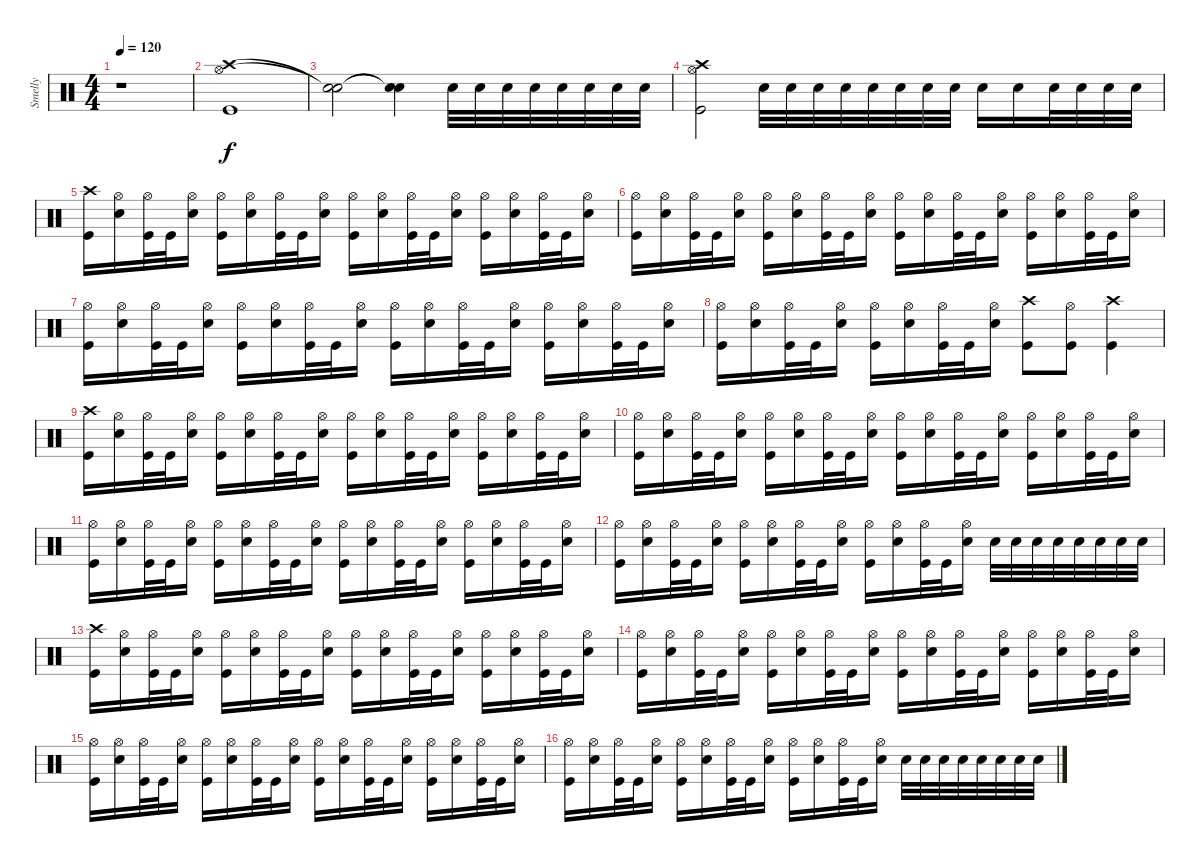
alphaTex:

\track ("Smelly" "Smelly") {instrument percussion}
\staff {score}
\articulation defaults
\ts (4 4)
\tempo 120
\clef neutral
\ks c
r.1{dy f} |
("Crash high (hit)" "Hi-Hat (open)" "Kick (hit)").1 |
("Snare (hit)"{t} "Snare (hit)"{t}).2 ("Snare (hit)"{t} "Snare (hit)"{t}).4 "Electric Snare (hit)".32 "Electric Snare (hit)".32 "Electric Snare (hit)".32 "Electric Snare (hit)".32 "Electric Snare (hit)".32 "Electric Snare (hit)".32 "Electric Snare (hit)".32 "Electric Snare (hit)".32 |
("Crash high (hit)" "Hi-Hat (open)" "Kick (hit)").2 "Electric Snare (hit)".32 "Electric Snare (hit)".32 "Electric Snare (hit)".32 "Electric Snare (hit)".32 "Electric Snare (hit)".32 "Electric Snare (hit)".32 "Electric Snare (hit)".32 "Electric Snare (hit)".32 "Electric Snare (hit)".16 "Electric Snare (hit)".16 "Electric Snare (hit)".32 "Electric Snare (hit)".32 "Electric Snare (hit)".32 "Electric Snare (hit)".32 |
("Crash high (hit)" "Kick (hit)").16 ("Hi-Hat (open)" "Electric Snare (hit)").16 ("Hi-Hat (open)" "Kick (hit)").32 "Kick (hit)".32 ("Hi-Hat (open)" "Electric Snare (hit)").16 ("Hi-Hat (open)" "Kick (hit)").16 ("Hi-Hat (open)" "Electric Snare (hit)").16 ("Hi-Hat (open)" "Kick (hit)").32 "Kick (hit)".32 ("Hi-Hat (open)" "Electric Snare (hit)").16 ("Hi-Hat (open)" "Kick (hit)").16 ("Hi-Hat (open)" "Electric Snare (hit)").16 ("Hi-Hat (open)" "Kick (hit)").32 "Kick (hit)".32 ("Hi-Hat (open)" "Electric Snare (hit)").16 ("Hi-Hat (open)" "Kick (hit)").16 ("Hi-Hat (open)" "Electric Snare (hit)").16 ("Hi-Hat (open)" "Kick (hit)").32 "Kick (hit)".32 ("Hi-Hat (open)" "Electric Snare (hit)").16 |
("Hi-Hat (open)" "Kick (hit)").16 ("Hi-Hat (open)" "Electric Snare (hit)").16 ("Hi-Hat (open)" "Kick (hit)").32 "Kick (hit)".32 ("Hi-Hat (open)" "Electric Snare (hit)").16 ("Hi-Hat (open)" "Kick (hit)").16 ("Hi-Hat (open)" "Electric Snare (hit)").16 ("Hi-Hat (open)" "Kick (hit)").32 "Kick (hit)".32 ("Hi-Hat (open)" "Electric Snare (hit)").16 ("Hi-Hat (open)" "Kick (hit)").16 ("Hi-Hat (open)" "Electric Snare (hit)").16 ("Hi-Hat (open)" "Kick (hit)").32 "Kick (hit)".32 ("Hi-Hat (open)" "Electric Snare (hit)").16 ("Hi-Hat (open)" "Kick (hit)").16 ("Hi-Hat (open)" "Electric Snare (hit)").16 ("Hi-Hat (open)" "Kick (hit)").32 "Kick (hit)".32 ("Hi-Hat (open)" "Electric Snare (hit)").16 |
("Hi-Hat (open)" "Kick (hit)").16 ("Hi-Hat (open)" "Electric Snare (hit)").16 ("Hi-Hat (open)" "Kick (hit)").32 "Kick (hit)".32 ("Hi-Hat (open)" "Electric Snare (hit)").16 ("Hi-Hat (open)" "Kick (hit)").16 ("Hi-Hat (open)" "Electric Snare (hit)").16 ("Hi-Hat (open)" "Kick (hit)").32 "Kick (hit)".32 ("Hi-Hat (open)" "Electric Snare (hit)").16 ("Hi-Hat (open)" "Kick (hit)").16 ("Hi-Hat (open)" "Electric Snare (hit)").16 ("Hi-Hat (open)" "Kick (hit)").32 "Kick (hit)".32 ("Hi-Hat (open)" "Electric Snare (hit)").16 ("Hi-Hat (open)" "Kick (hit)").16 ("Hi-Hat (open)" "Electric Snare (hit)").16 ("Hi-Hat (open)" "Kick (hit)").32 "Kick (hit)".32 ("Hi-Hat (open)" "Electric Snare (hit)").16 |
("Hi-Hat (open)" "Kick (hit)").16 ("Hi-Hat (open)" "Electric Snare (hit)").16 ("Hi-Hat (open)" "Kick (hit)").32 "Kick (hit)".32 ("Hi-Hat (open)" "Electric Snare (hit)").16 ("Hi-Hat (open)" "Kick (hit)").16 ("Hi-Hat (open)" "Electric Snare (hit)").16 ("Hi-Hat (open)" "Kick (hit)").32 "Kick (hit)".32 ("Hi-Hat (open)" "Electric Snare (hit)").16 ("Crash high (hit)" "Kick (hit)").8 ("Hi-Hat (open)" "Kick (hit)").8 ("Crash high (hit)" "Kick (hit)").4 |
("Crash high (hit)" "Kick (hit)").16 ("Hi-Hat (open)" "Electric Snare (hit)").16 ("Hi-Hat (open)" "Kick (hit)").32 "Kick (hit)".32 ("Hi-Hat (open)" "Electric Snare (hit)").16 ("Hi-Hat (open)" "Kick (hit)").16 ("Hi-Hat (open)" "Electric Snare (hit)").16 ("Hi-Hat (open)" "Kick (hit)").32 "Kick (hit)".32 ("Hi-Hat (open)" "Electric Snare (hit)").16 ("Hi-Hat (open)" "Kick (hit)").16 ("Hi-Hat (open)" "Electric Snare (hit)").16 ("Hi-Hat (open)" "Kick (hit)").32 "Kick (hit)".32 ("Hi-Hat (open)" "Electric Snare (hit)").16 ("Hi-Hat (open)" "Kick (hit)").16 ("Hi-Hat (open)" "Electric Snare (hit)").16 ("Hi-Hat (open)" "Kick (hit)").32 "Kick (hit)".32 ("Hi-Hat (open)" "Electric Snare (hit)").16 |
("Hi-Hat (open)" "Kick (hit)").16 ("Hi-Hat (open)" "Electric Snare (hit)").16 ("Hi-Hat (open)" "Kick (hit)").32 "Kick (hit)".32 ("Hi-Hat (open)" "Electric Snare (hit)").16 ("Hi-Hat (open)" "Kick (hit)").16 ("Hi-Hat (open)" "Electric Snare (hit)").16 ("Hi-Hat (open)" "Kick (hit)").32 "Kick (hit)".32 ("Hi-Hat (open)" "Electric Snare (hit)").16 ("Hi-Hat (open)" "Kick (hit)").16 ("Hi-Hat (open)" "Electric Snare (hit)").16 ("Hi-Hat (open)" "Kick (hit)").32 "Kick (hit)".32 ("Hi-Hat (open)" "Electric Snare (hit)").16 ("Hi-Hat (open)" "Kick (hit)").16 ("Hi-Hat (open)" "Electric Snare (hit)").16 ("Hi-Hat (open)" "Kick (hit)").32 "Kick (hit)".32 ("Hi-Hat (open)" "Electric Snare (hit)").16 |
("Hi-Hat (open)" "Kick (hit)").16 ("Hi-Hat (open)" "Electric Snare (hit)").16 ("Hi-Hat (open)" "Kick (hit)").32 "Kick (hit)".32 ("Hi-Hat (open)" "Electric Snare (hit)").16 ("Hi-Hat (open)" "Kick (hit)").16 ("Hi-Hat (open)" "Electric Snare (hit)").16 ("Hi-Hat (open)" "Kick (hit)").32 "Kick (hit)".32 ("Hi-Hat (open)" "Electric Snare (hit)").16 ("Hi-Hat (open)" "Kick (hit)").16 ("Hi-Hat (open)" "Electric Snare (hit)").16 ("Hi-Hat (open)" "Kick (hit)").32 "Kick (hit)".32 ("Hi-Hat (open)" "Electric Snare (hit)").16 ("Hi-Hat (open)" "Kick (hit)").16 ("Hi-Hat (open)" "Electric Snare (hit)").16 ("Hi-Hat (open)" "Kick (hit)").32 "Kick (hit)".32 ("Hi-Hat (open)" "Electric Snare (hit)").16 |
("Hi-Hat (open)" "Kick (hit)").16 ("Hi-Hat (open)" "Electric Snare (hit)").16 ("Hi-Hat (open)" "Kick (hit)").32 "Kick (hit)".32 ("Hi-Hat (open)" "Electric Snare (hit)").16 ("Hi-Hat (open)" "Kick (hit)").16 ("Hi-Hat (open)" "Electric Snare (hit)").16 ("Hi-Hat (open)" "Kick (hit)").32 "Kick (hit)".32 ("Hi-Hat (open)" "Electric Snare (hit)").16 ("Hi-Hat (open)" "Kick (hit)").16 ("Hi-Hat (open)" "Electric Snare (hit)").16 ("Hi-Hat (open)" "Kick (hit)").32 "Kick (hit)".32 ("Hi-Hat (open)" "Electric Snare (hit)").16 "Electric Snare (hit)".32 "Electric Snare (hit)".32 "Electric Snare (hit)".32 "Electric Snare (hit)".32 "Electric Snare (hit)".32 "Electric Snare (hit)".32 "Electric Snare (hit)".32 "Electric Snare (hit)".32 |
("Crash high (hit)" "Kick (hit)").16 ("Hi-Hat (open)" "Electric Snare (hit)").16 ("Hi-Hat (open)" "Kick (hit)").32 "Kick (hit)".32 ("Hi-Hat (open)" "Electric Snare (hit)").16 ("Hi-Hat (open)" "Kick (hit)").16 ("Hi-Hat (open)" "Electric Snare (hit)").16 ("Hi-Hat (open)" "Kick (hit)").32 "Kick (hit)".32 ("Hi-Hat (open)" "Electric Snare (hit)").16 ("Hi-Hat (open)" "Kick (hit)").16 ("Hi-Hat (open)" "Electric Snare (hit)").16 ("Hi-Hat (open)" "Kick (hit)").32 "Kick (hit)".32 ("Hi-Hat (open)" "Electric Snare (hit)").16 ("Hi-Hat (open)" "Kick (hit)").16 ("Hi-Hat (open)" "Electric Snare (hit)").16 ("Hi-Hat (open)" "Kick (hit)").32 "Kick (hit)".32 ("Hi-Hat (open)" "Electric Snare (hit)").16 |
("Hi-Hat (open)" "Kick (hit)").16 ("Hi-Hat (open)" "Electric Snare (hit)").16 ("Hi-Hat (open)" "Kick (hit)").32 "Kick (hit)".32 ("Hi-Hat (open)" "Electric Snare (hit)").16 ("Hi-Hat (open)" "Kick (hit)").16 ("Hi-Hat (open)" "Electric Snare (hit)").16 ("Hi-Hat (open)" "Kick (hit)").32 "Kick (hit)".32 ("Hi-Hat (open)" "Electric Snare (hit)").16 ("Hi-Hat (open)" "Kick (hit)").16 ("Hi-Hat (open)" "Electric Snare (hit)").16 ("Hi-Hat (open)" "Kick (hit)").32 "Kick (hit)".32 ("Hi-Hat (open)" "Electric Snare (hit)").16 ("Hi-Hat (open)" "Kick (hit)").16 ("Hi-Hat (open)" "Electric Snare (hit)").16 ("Hi-Hat (open)" "Kick (hit)").32 "Kick (hit)".32 ("Hi-Hat (open)" "Electric Snare (hit)").16 |
("Hi-Hat (open)" "Kick (hit)").16 ("Hi-Hat (open)" "Electric Snare (hit)").16 ("Hi-Hat (open)" "Kick (hit)").32 "Kick (hit)".32 ("Hi-Hat (open)" "Electric Snare (hit)").16 ("Hi-Hat (open)" "Kick (hit)").16 ("Hi-Hat (open)" "Electric Snare (hit)").16 ("Hi-Hat (open)" "Kick (hit)").32 "Kick (hit)".32 ("Hi-Hat (open)" "Electric Snare (hit)").16 ("Hi-Hat (open)" "Kick (hit)").16 ("Hi-Hat (open)" "Electric Snare (hit)").16 ("Hi-Hat (open)" "Kick (hit)").32 "Kick (hit)".32 ("Hi-Hat (open)" "Electric Snare (hit)").16 ("Hi-Hat (open)" "Kick (hit)").16 ("Hi-Hat (open)" "Electric Snare (hit)").16 ("Hi-Hat (open)" "Kick (hit)").32 "Kick (hit)".32 ("Hi-Hat (open)" "Electric Snare (hit)").16 |
("Hi-Hat (open)" "Kick (hit)").16 ("Hi-Hat (open)" "Electric Snare (hit)").16 ("Hi-Hat (open)" "Kick (hit)").32 "Kick (hit)".32 ("Hi-Hat (open)" "Electric Snare (hit)").16 ("Hi-Hat (open)" "Kick (hit)").16 ("Hi-Hat (open)" "Electric Snare (hit)").16 ("Hi-Hat (open)" "Kick (hit)").32 "Kick (hit)".32 ("Hi-Hat (open)" "Electric Snare (hit)").16 ("Hi-Hat (open)" "Kick (hit)").16 ("Hi-Hat (open)" "Electric Snare (hit)").16 ("Hi-Hat (open)" "Kick (hit)").32 "Kick (hit)".32 ("Hi-Hat (open)" "Electric Snare (hit)").16 "Electric Snare (hit)".32 "Electric Snare (hit)".32 "Electric Snare (hit)".32 "Electric Snare (hit)".32 "Electric Snare (hit)".32 "Electric Snare (hit)".32 "Electric Snare (hit)".32 "Electric Snare (hit)".32
